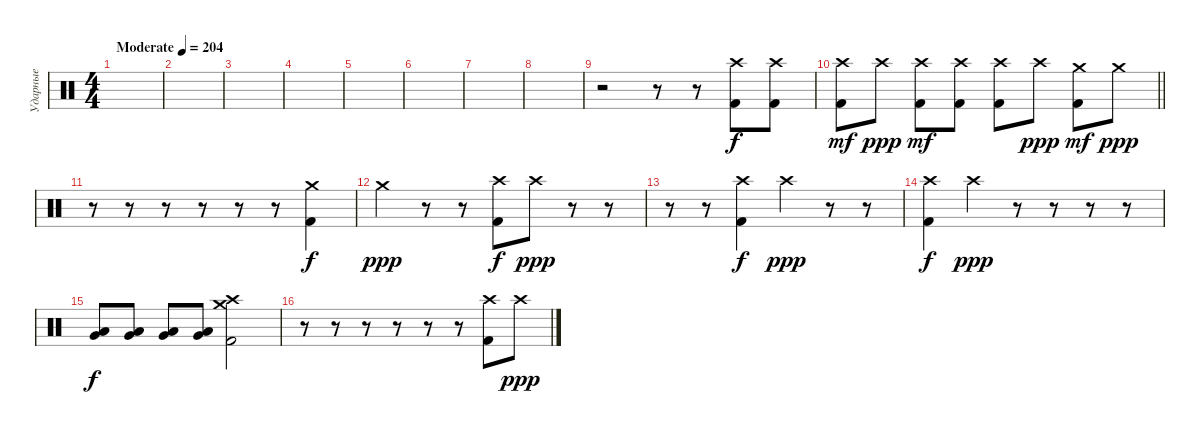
\track ("Ударные" "Ударные") {instrument percussion}
\staff {score}
\articulation defaults
\ts (4 4)
\tempo (204 "Moderate")
\clef neutral
\ks c
|
|
|
|
|
|
|
|
r.2 r.8 r.8 ("Crash high (hit)" "Kick (hit) 2").8 ("Crash high (hit)" "Kick (hit) 2").8 |
\barLineRight lightlight
("Crash high (hit)" "Kick (hit) 2").8{dy mf} "Crash high (hit)".8{dy ppp} ("Crash high (hit)" "Kick (hit) 2").8{dy mf} ("Crash high (hit)" "Kick (hit) 2").8 ("Crash high (hit)" "Kick (hit) 2").8 "Crash high (hit)".8{dy ppp} ("Crash medium (hit)" "Kick (hit) 2").8{dy mf} "Crash medium (hit)".8{dy ppp} |
r.8 r.8 r.8 r.8 r.8 r.8 ("Crash medium (hit)" "Kick (hit) 2").4{dy f} |
"Crash medium (hit)".4{dy ppp} r.8 r.8 ("Crash high (hit)" "Kick (hit) 2").8{dy f} "Crash high (hit)".8{dy ppp} r.8 r.8 |
r.8 r.8 ("Crash high (hit)" "Kick (hit) 2").4{dy f} "Crash high (hit)".4{dy ppp} r.8 r.8 |
("Crash high (hit)" "Kick (hit) 2").4{dy f} "Crash high (hit)".4{dy ppp} r.8 r.8 r.8 r.8 |
("Low Tom (hit)" "Very Low Tom (hit)").8{dy f} ("Low Tom (hit)" "Very Low Tom (hit)").8 ("Low Tom (hit)" "Very Low Tom (hit)").8 ("Low Tom (hit)" "Very Low Tom (hit)").8 ("Crash high (hit)" "Crash medium (hit)" "Kick (hit) 2").2 |
r.8 r.8 r.8 r.8 r.8 r.8 ("Crash high (hit)" "Kick (hit) 2").8 "Crash high (hit)".8{dy ppp}
